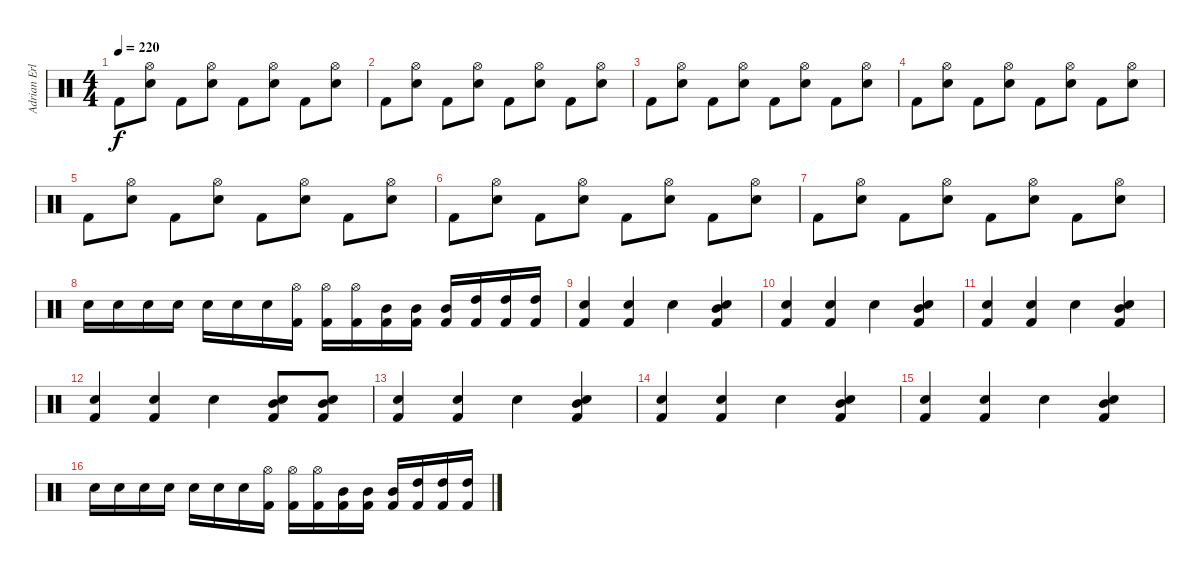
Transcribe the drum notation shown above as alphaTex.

\track ("Adrian Erlandsson" "Adrian Erl") {instrument percussion}
\staff {score}
\articulation defaults
\ts (4 4)
\tempo 220
\clef neutral
\ks c "Kick (hit) 2".8{dy f}
("Hi-Hat (open)" "Snare (hit) 2").8 "Kick (hit) 2".8 ("Hi-Hat (open)" "Snare (hit) 2").8 "Kick (hit) 2".8 ("Hi-Hat (open)" "Snare (hit) 2").8 "Kick (hit) 2".8 ("Hi-Hat (open)" "Snare (hit) 2").8 |
"Kick (hit) 2".8 ("Hi-Hat (open)" "Snare (hit) 2").8 "Kick (hit) 2".8 ("Hi-Hat (open)" "Snare (hit) 2").8 "Kick (hit) 2".8 ("Hi-Hat (open)" "Snare (hit) 2").8 "Kick (hit) 2".8 ("Hi-Hat (open)" "Snare (hit) 2").8 |
"Kick (hit) 2".8 ("Hi-Hat (open)" "Snare (hit) 2").8 "Kick (hit) 2".8 ("Hi-Hat (open)" "Snare (hit) 2").8 "Kick (hit) 2".8 ("Hi-Hat (open)" "Snare (hit) 2").8 "Kick (hit) 2".8 ("Hi-Hat (open)" "Snare (hit) 2").8 |
"Kick (hit) 2".8 ("Hi-Hat (open)" "Snare (hit) 2").8 "Kick (hit) 2".8 ("Hi-Hat (open)" "Snare (hit) 2").8 "Kick (hit) 2".8 ("Hi-Hat (open)" "Snare (hit) 2").8 "Kick (hit) 2".8 ("Hi-Hat (open)" "Snare (hit) 2").8 |
"Kick (hit) 2".8 ("Hi-Hat (open)" "Snare (hit) 2").8 "Kick (hit) 2".8 ("Hi-Hat (open)" "Snare (hit) 2").8 "Kick (hit) 2".8 ("Hi-Hat (open)" "Snare (hit) 2").8 "Kick (hit) 2".8 ("Hi-Hat (open)" "Snare (hit) 2").8 |
"Kick (hit) 2".8 ("Hi-Hat (open)" "Snare (hit) 2").8 "Kick (hit) 2".8 ("Hi-Hat (open)" "Snare (hit) 2").8 "Kick (hit) 2".8 ("Hi-Hat (open)" "Snare (hit) 2").8 "Kick (hit) 2".8 ("Hi-Hat (open)" "Snare (hit) 2").8 |
"Kick (hit) 2".8 ("Hi-Hat (open)" "Snare (hit) 2").8 "Kick (hit) 2".8 ("Hi-Hat (open)" "Snare (hit) 2").8 "Kick (hit) 2".8 ("Hi-Hat (open)" "Snare (hit) 2").8 "Kick (hit) 2".8 ("Hi-Hat (open)" "Snare (hit) 2").8 |
"Snare (hit) 2".16 "Snare (hit) 2".16 "Snare (hit) 2".16 "Snare (hit) 2".16 "Snare (hit) 2".16 "Snare (hit) 2".16 "Snare (hit) 2".16 ("Hi-Hat (open)" "Kick (hit) 2").16 ("Hi-Hat (open)" "Kick (hit) 2").16 ("Hi-Hat (open)" "Kick (hit) 2").16 ("Mid Tom (hit)" "Kick (hit) 2").16 ("Mid Tom (hit)" "Kick (hit) 2").16 ("Mid Tom (hit)" "Kick (hit) 2").16 ("High Tom (hit)" "Kick (hit) 2").16 ("High Tom (hit)" "Kick (hit) 2").16 ("High Tom (hit)" "Kick (hit) 2").16 |
("Snare (hit) 2" "Kick (hit) 2").4 ("Snare (hit) 2" "Kick (hit) 2").4 "Snare (hit) 2".4 ("Mid Tom (hit)" "Snare (hit) 2" "Kick (hit) 2").4 |
("Snare (hit) 2" "Kick (hit) 2").4 ("Snare (hit) 2" "Kick (hit) 2").4 "Snare (hit) 2".4 ("Mid Tom (hit)" "Snare (hit) 2" "Kick (hit) 2").4 |
("Snare (hit) 2" "Kick (hit) 2").4 ("Snare (hit) 2" "Kick (hit) 2").4 "Snare (hit) 2".4 ("Mid Tom (hit)" "Snare (hit) 2" "Kick (hit) 2").4 |
("Snare (hit) 2" "Kick (hit) 2").4 ("Snare (hit) 2" "Kick (hit) 2").4 "Snare (hit) 2".4 ("Mid Tom (hit)" "Snare (hit) 2" "Kick (hit) 2").8 ("Mid Tom (hit)" "Snare (hit) 2" "Kick (hit) 2").8 |
("Snare (hit) 2" "Kick (hit) 2").4 ("Snare (hit) 2" "Kick (hit) 2").4 "Snare (hit) 2".4 ("Mid Tom (hit)" "Snare (hit) 2" "Kick (hit) 2").4 |
("Snare (hit) 2" "Kick (hit) 2").4 ("Snare (hit) 2" "Kick (hit) 2").4 "Snare (hit) 2".4 ("Mid Tom (hit)" "Snare (hit) 2" "Kick (hit) 2").4 |
("Snare (hit) 2" "Kick (hit) 2").4 ("Snare (hit) 2" "Kick (hit) 2").4 "Snare (hit) 2".4 ("Mid Tom (hit)" "Snare (hit) 2" "Kick (hit) 2").4 |
"Snare (hit) 2".16 "Snare (hit) 2".16 "Snare (hit) 2".16 "Snare (hit) 2".16 "Snare (hit) 2".16 "Snare (hit) 2".16 "Snare (hit) 2".16 ("Hi-Hat (open)" "Kick (hit) 2").16 ("Hi-Hat (open)" "Kick (hit) 2").16 ("Hi-Hat (open)" "Kick (hit) 2").16 ("Mid Tom (hit)" "Kick (hit) 2").16 ("Mid Tom (hit)" "Kick (hit) 2").16 ("Mid Tom (hit)" "Kick (hit) 2").16 ("High Tom (hit)" "Kick (hit) 2").16 ("High Tom (hit)" "Kick (hit) 2").16 ("High Tom (hit)" "Kick (hit) 2").16
